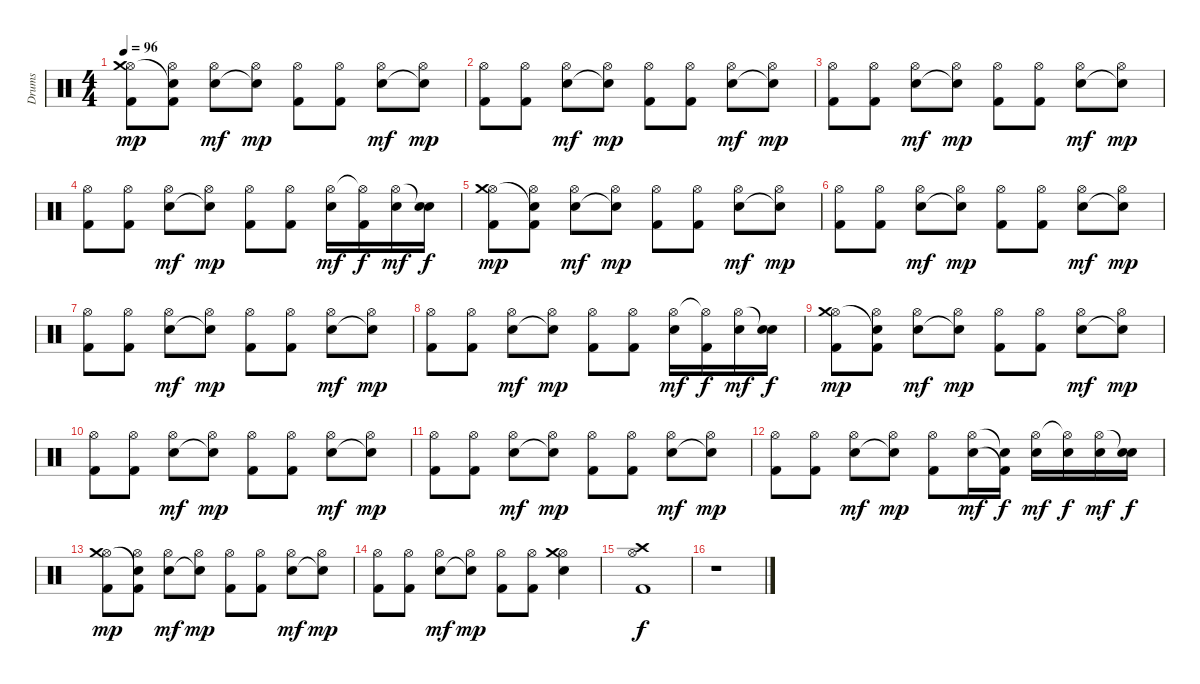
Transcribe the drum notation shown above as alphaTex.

\track ("Drums" "Drums") {instrument percussion}
\staff {score}
\articulation defaults
\ts (4 4)
\tempo 96
\clef neutral
\ks c
("Hi-Hat (open)" "Kick (hit) 2" "Crash medium (hit)").8{dy mp} ("Hi-Hat (open)" "Kick (hit) 2" "Snare (hit)"{t}).8 ("Hi-Hat (open)" "Electric Snare (hit)").8{dy mf} ("Hi-Hat (open)" "Snare (hit)"{t}).8{dy mp} ("Hi-Hat (open)" "Kick (hit) 2").8 ("Hi-Hat (open)" "Kick (hit) 2").8 ("Hi-Hat (open)" "Electric Snare (hit)").8{dy mf} ("Hi-Hat (open)" "Snare (hit)"{t}).8{dy mp} |
("Hi-Hat (open)" "Kick (hit) 2").8 ("Hi-Hat (open)" "Kick (hit) 2").8 ("Hi-Hat (open)" "Electric Snare (hit)").8{dy mf} ("Hi-Hat (open)" "Snare (hit)"{t}).8{dy mp} ("Hi-Hat (open)" "Kick (hit) 2").8 ("Hi-Hat (open)" "Kick (hit) 2").8 ("Hi-Hat (open)" "Electric Snare (hit)").8{dy mf} ("Hi-Hat (open)" "Snare (hit)"{t}).8{dy mp} |
("Hi-Hat (open)" "Kick (hit) 2").8 ("Hi-Hat (open)" "Kick (hit) 2").8 ("Hi-Hat (open)" "Electric Snare (hit)").8{dy mf} ("Hi-Hat (open)" "Snare (hit)"{t}).8{dy mp} ("Hi-Hat (open)" "Kick (hit) 2").8 ("Hi-Hat (open)" "Kick (hit) 2").8 ("Hi-Hat (open)" "Electric Snare (hit)").8{dy mf} ("Hi-Hat (open)" "Snare (hit)"{t}).8{dy mp} |
("Hi-Hat (open)" "Kick (hit) 2").8 ("Hi-Hat (open)" "Kick (hit) 2").8 ("Hi-Hat (open)" "Electric Snare (hit)").8{dy mf} ("Hi-Hat (open)" "Snare (hit)"{t}).8{dy mp} ("Hi-Hat (open)" "Kick (hit) 2").8 ("Hi-Hat (open)" "Kick (hit) 2").8 ("Hi-Hat (open)" "Electric Snare (hit)").16{dy mf} ("Hi-Hat (open)"{t} "Kick (hit) 2").16{dy f} ("Hi-Hat (open)" "Electric Snare (hit)").16{dy mf} ("Snare (hit)"{t} "Electric Snare (hit)").16{dy f} |
("Hi-Hat (open)" "Kick (hit) 2" "Crash medium (hit)").8{dy mp} ("Hi-Hat (open)" "Kick (hit) 2" "Snare (hit)"{t}).8 ("Hi-Hat (open)" "Electric Snare (hit)").8{dy mf} ("Hi-Hat (open)" "Snare (hit)"{t}).8{dy mp} ("Hi-Hat (open)" "Kick (hit) 2").8 ("Hi-Hat (open)" "Kick (hit) 2").8 ("Hi-Hat (open)" "Electric Snare (hit)").8{dy mf} ("Hi-Hat (open)" "Snare (hit)"{t}).8{dy mp} |
("Hi-Hat (open)" "Kick (hit) 2").8 ("Hi-Hat (open)" "Kick (hit) 2").8 ("Hi-Hat (open)" "Electric Snare (hit)").8{dy mf} ("Hi-Hat (open)" "Snare (hit)"{t}).8{dy mp} ("Hi-Hat (open)" "Kick (hit) 2").8 ("Hi-Hat (open)" "Kick (hit) 2").8 ("Hi-Hat (open)" "Electric Snare (hit)").8{dy mf} ("Hi-Hat (open)" "Snare (hit)"{t}).8{dy mp} |
("Hi-Hat (open)" "Kick (hit) 2").8 ("Hi-Hat (open)" "Kick (hit) 2").8 ("Hi-Hat (open)" "Electric Snare (hit)").8{dy mf} ("Hi-Hat (open)" "Snare (hit)"{t}).8{dy mp} ("Hi-Hat (open)" "Kick (hit) 2").8 ("Hi-Hat (open)" "Kick (hit) 2").8 ("Hi-Hat (open)" "Electric Snare (hit)").8{dy mf} ("Hi-Hat (open)" "Snare (hit)"{t}).8{dy mp} |
("Hi-Hat (open)" "Kick (hit) 2").8 ("Hi-Hat (open)" "Kick (hit) 2").8 ("Hi-Hat (open)" "Electric Snare (hit)").8{dy mf} ("Hi-Hat (open)" "Snare (hit)"{t}).8{dy mp} ("Hi-Hat (open)" "Kick (hit) 2").8 ("Hi-Hat (open)" "Kick (hit) 2").8 ("Hi-Hat (open)" "Electric Snare (hit)").16{dy mf} ("Hi-Hat (open)"{t} "Kick (hit) 2").16{dy f} ("Hi-Hat (open)" "Electric Snare (hit)").16{dy mf} ("Snare (hit)"{t} "Electric Snare (hit)").16{dy f} |
("Hi-Hat (open)" "Kick (hit) 2" "Crash medium (hit)").8{dy mp} ("Hi-Hat (open)" "Kick (hit) 2" "Snare (hit)"{t}).8 ("Hi-Hat (open)" "Electric Snare (hit)").8{dy mf} ("Hi-Hat (open)" "Snare (hit)"{t}).8{dy mp} ("Hi-Hat (open)" "Kick (hit) 2").8 ("Hi-Hat (open)" "Kick (hit) 2").8 ("Hi-Hat (open)" "Electric Snare (hit)").8{dy mf} ("Hi-Hat (open)" "Snare (hit)"{t}).8{dy mp} |
("Hi-Hat (open)" "Kick (hit) 2").8 ("Hi-Hat (open)" "Kick (hit) 2").8 ("Hi-Hat (open)" "Electric Snare (hit)").8{dy mf} ("Hi-Hat (open)" "Snare (hit)"{t}).8{dy mp} ("Hi-Hat (open)" "Kick (hit) 2").8 ("Hi-Hat (open)" "Kick (hit) 2").8 ("Hi-Hat (open)" "Electric Snare (hit)").8{dy mf} ("Hi-Hat (open)" "Snare (hit)"{t}).8{dy mp} |
("Hi-Hat (open)" "Kick (hit) 2").8 ("Hi-Hat (open)" "Kick (hit) 2").8 ("Hi-Hat (open)" "Electric Snare (hit)").8{dy mf} ("Hi-Hat (open)" "Snare (hit)"{t}).8{dy mp} ("Hi-Hat (open)" "Kick (hit) 2").8 ("Hi-Hat (open)" "Kick (hit) 2").8 ("Hi-Hat (open)" "Electric Snare (hit)").8{dy mf} ("Hi-Hat (open)" "Snare (hit)"{t}).8{dy mp} |
("Hi-Hat (open)" "Kick (hit) 2").8 ("Hi-Hat (open)" "Kick (hit) 2").8 ("Hi-Hat (open)" "Electric Snare (hit)").8{dy mf} ("Hi-Hat (open)" "Snare (hit)"{t}).8{dy mp} ("Hi-Hat (open)" "Kick (hit) 2").8 ("Hi-Hat (open)" "Electric Snare (hit)").16{dy mf} ("Snare (hit)"{t} "Kick (hit) 2"{t}).16{dy f} ("Hi-Hat (open)" "Electric Snare (hit)").16{dy mf} ("Hi-Hat (open)"{t} "Electric Snare (hit)").16{dy f} ("Hi-Hat (open)" "Electric Snare (hit)").16{dy mf} ("Snare (hit)"{t} "Electric Snare (hit)").16{dy f} |
("Hi-Hat (open)" "Kick (hit) 2" "Crash medium (hit)").8{dy mp} ("Hi-Hat (open)" "Kick (hit) 2" "Snare (hit)"{t}).8 ("Hi-Hat (open)" "Electric Snare (hit)").8{dy mf} ("Hi-Hat (open)" "Snare (hit)"{t}).8{dy mp} ("Hi-Hat (open)" "Kick (hit) 2").8 ("Hi-Hat (open)" "Kick (hit) 2").8 ("Hi-Hat (open)" "Electric Snare (hit)").8{dy mf} ("Hi-Hat (open)" "Snare (hit)"{t}).8{dy mp} |
("Hi-Hat (open)" "Kick (hit) 2").8 ("Hi-Hat (open)" "Kick (hit) 2").8 ("Hi-Hat (open)" "Electric Snare (hit)").8{dy mf} ("Hi-Hat (open)" "Snare (hit)"{t}).8{dy mp} ("Hi-Hat (open)" "Kick (hit) 2").8 ("Hi-Hat (open)" "Kick (hit) 2").8 ("Hi-Hat (open)" "Electric Snare (hit)" "Crash medium (hit)").4 |
("Hi-Hat (open)" "Kick (hit) 2" "Crash high (hit)").1{dy f} |
r.1
